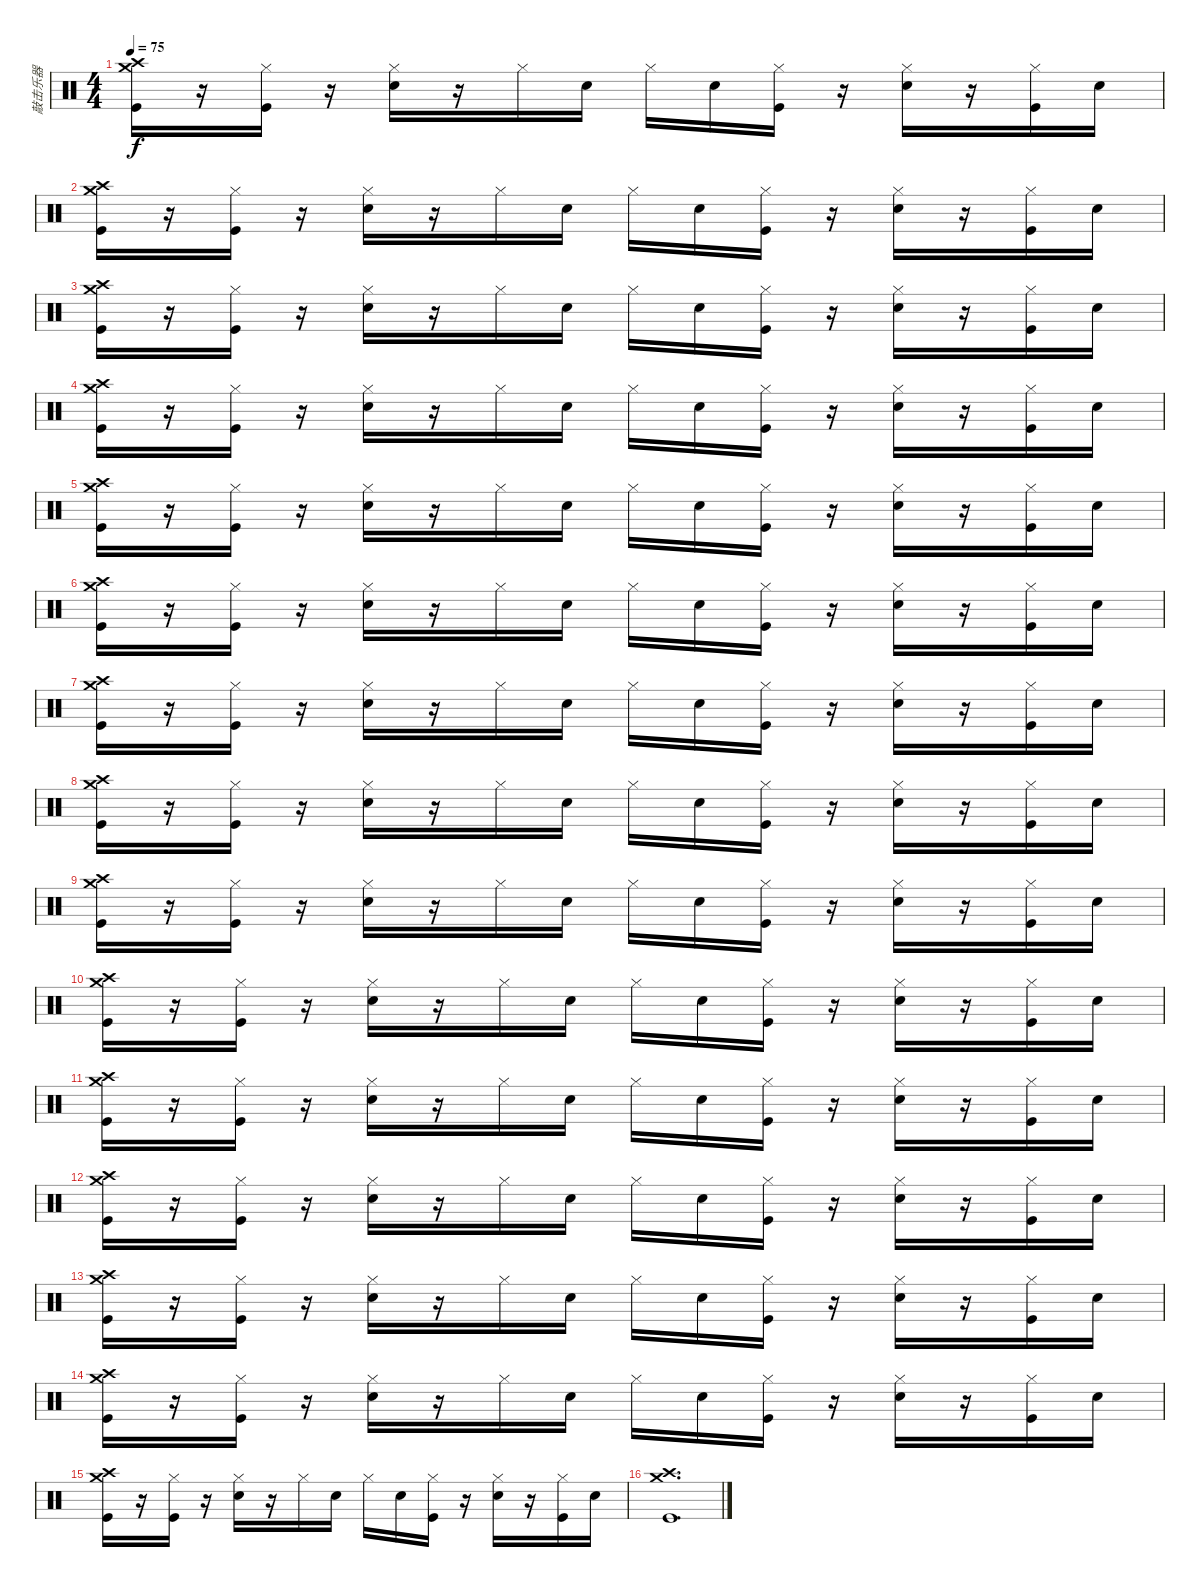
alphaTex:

\track ("敲击乐器" "敲击乐器") {instrument percussion}
\staff {score}
\articulation defaults
\ts (4 4)
\tempo 75
\clef neutral
\ks c
("Crash medium (hit)" "Crash high (hit)" "Kick (hit)").16{dy f} r.16 ("Hi-Hat (closed)" "Kick (hit)").16 r.16 ("Hi-Hat (closed)" "Snare (hit) 2").16 r.16 "Hi-Hat (closed)".16 "Snare (hit) 2".16 "Hi-Hat (closed)".16 "Snare (hit) 2".16 ("Hi-Hat (closed)" "Kick (hit)").16 r.16 ("Hi-Hat (closed)" "Snare (hit) 2").16 r.16 ("Hi-Hat (closed)" "Kick (hit)").16 "Snare (hit) 2".16 |
("Crash medium (hit)" "Crash high (hit)" "Kick (hit)").16 r.16 ("Hi-Hat (closed)" "Kick (hit)").16 r.16 ("Hi-Hat (closed)" "Snare (hit) 2").16 r.16 "Hi-Hat (closed)".16 "Snare (hit) 2".16 "Hi-Hat (closed)".16 "Snare (hit) 2".16 ("Hi-Hat (closed)" "Kick (hit)").16 r.16 ("Hi-Hat (closed)" "Snare (hit) 2").16 r.16 ("Hi-Hat (closed)" "Kick (hit)").16 "Snare (hit) 2".16 |
("Crash medium (hit)" "Crash high (hit)" "Kick (hit)").16 r.16 ("Hi-Hat (closed)" "Kick (hit)").16 r.16 ("Hi-Hat (closed)" "Snare (hit) 2").16 r.16 "Hi-Hat (closed)".16 "Snare (hit) 2".16 "Hi-Hat (closed)".16 "Snare (hit) 2".16 ("Hi-Hat (closed)" "Kick (hit)").16 r.16 ("Hi-Hat (closed)" "Snare (hit) 2").16 r.16 ("Hi-Hat (closed)" "Kick (hit)").16 "Snare (hit) 2".16 |
("Crash medium (hit)" "Crash high (hit)" "Kick (hit)").16 r.16 ("Hi-Hat (closed)" "Kick (hit)").16 r.16 ("Hi-Hat (closed)" "Snare (hit) 2").16 r.16 "Hi-Hat (closed)".16 "Snare (hit) 2".16 "Hi-Hat (closed)".16 "Snare (hit) 2".16 ("Hi-Hat (closed)" "Kick (hit)").16 r.16 ("Hi-Hat (closed)" "Snare (hit) 2").16 r.16 ("Hi-Hat (closed)" "Kick (hit)").16 "Snare (hit) 2".16 |
("Crash medium (hit)" "Crash high (hit)" "Kick (hit)").16 r.16 ("Hi-Hat (closed)" "Kick (hit)").16 r.16 ("Hi-Hat (closed)" "Snare (hit) 2").16 r.16 "Hi-Hat (closed)".16 "Snare (hit) 2".16 "Hi-Hat (closed)".16 "Snare (hit) 2".16 ("Hi-Hat (closed)" "Kick (hit)").16 r.16 ("Hi-Hat (closed)" "Snare (hit) 2").16 r.16 ("Hi-Hat (closed)" "Kick (hit)").16 "Snare (hit) 2".16 |
("Crash medium (hit)" "Crash high (hit)" "Kick (hit)").16 r.16 ("Hi-Hat (closed)" "Kick (hit)").16 r.16 ("Hi-Hat (closed)" "Snare (hit) 2").16 r.16 "Hi-Hat (closed)".16 "Snare (hit) 2".16 "Hi-Hat (closed)".16 "Snare (hit) 2".16 ("Hi-Hat (closed)" "Kick (hit)").16 r.16 ("Hi-Hat (closed)" "Snare (hit) 2").16 r.16 ("Hi-Hat (closed)" "Kick (hit)").16 "Snare (hit) 2".16 |
("Crash medium (hit)" "Crash high (hit)" "Kick (hit)").16 r.16 ("Hi-Hat (closed)" "Kick (hit)").16 r.16 ("Hi-Hat (closed)" "Snare (hit) 2").16 r.16 "Hi-Hat (closed)".16 "Snare (hit) 2".16 "Hi-Hat (closed)".16 "Snare (hit) 2".16 ("Hi-Hat (closed)" "Kick (hit)").16 r.16 ("Hi-Hat (closed)" "Snare (hit) 2").16 r.16 ("Hi-Hat (closed)" "Kick (hit)").16 "Snare (hit) 2".16 |
("Crash medium (hit)" "Crash high (hit)" "Kick (hit)").16 r.16 ("Hi-Hat (closed)" "Kick (hit)").16 r.16 ("Hi-Hat (closed)" "Snare (hit) 2").16 r.16 "Hi-Hat (closed)".16 "Snare (hit) 2".16 "Hi-Hat (closed)".16 "Snare (hit) 2".16 ("Hi-Hat (closed)" "Kick (hit)").16 r.16 ("Hi-Hat (closed)" "Snare (hit) 2").16 r.16 ("Hi-Hat (closed)" "Kick (hit)").16 "Snare (hit) 2".16 |
("Crash medium (hit)" "Crash high (hit)" "Kick (hit)").16 r.16 ("Hi-Hat (closed)" "Kick (hit)").16 r.16 ("Hi-Hat (closed)" "Snare (hit) 2").16 r.16 "Hi-Hat (closed)".16 "Snare (hit) 2".16 "Hi-Hat (closed)".16 "Snare (hit) 2".16 ("Hi-Hat (closed)" "Kick (hit)").16 r.16 ("Hi-Hat (closed)" "Snare (hit) 2").16 r.16 ("Hi-Hat (closed)" "Kick (hit)").16 "Snare (hit) 2".16 |
("Crash medium (hit)" "Crash high (hit)" "Kick (hit)").16 r.16 ("Hi-Hat (closed)" "Kick (hit)").16 r.16 ("Hi-Hat (closed)" "Snare (hit) 2").16 r.16 "Hi-Hat (closed)".16 "Snare (hit) 2".16 "Hi-Hat (closed)".16 "Snare (hit) 2".16 ("Hi-Hat (closed)" "Kick (hit)").16 r.16 ("Hi-Hat (closed)" "Snare (hit) 2").16 r.16 ("Hi-Hat (closed)" "Kick (hit)").16 "Snare (hit) 2".16 |
("Crash medium (hit)" "Crash high (hit)" "Kick (hit)").16 r.16 ("Hi-Hat (closed)" "Kick (hit)").16 r.16 ("Hi-Hat (closed)" "Snare (hit) 2").16 r.16 "Hi-Hat (closed)".16 "Snare (hit) 2".16 "Hi-Hat (closed)".16 "Snare (hit) 2".16 ("Hi-Hat (closed)" "Kick (hit)").16 r.16 ("Hi-Hat (closed)" "Snare (hit) 2").16 r.16 ("Hi-Hat (closed)" "Kick (hit)").16 "Snare (hit) 2".16 |
("Crash medium (hit)" "Crash high (hit)" "Kick (hit)").16 r.16 ("Hi-Hat (closed)" "Kick (hit)").16 r.16 ("Hi-Hat (closed)" "Snare (hit) 2").16 r.16 "Hi-Hat (closed)".16 "Snare (hit) 2".16 "Hi-Hat (closed)".16 "Snare (hit) 2".16 ("Hi-Hat (closed)" "Kick (hit)").16 r.16 ("Hi-Hat (closed)" "Snare (hit) 2").16 r.16 ("Hi-Hat (closed)" "Kick (hit)").16 "Snare (hit) 2".16 |
("Crash medium (hit)" "Crash high (hit)" "Kick (hit)").16 r.16 ("Hi-Hat (closed)" "Kick (hit)").16 r.16 ("Hi-Hat (closed)" "Snare (hit) 2").16 r.16 "Hi-Hat (closed)".16 "Snare (hit) 2".16 "Hi-Hat (closed)".16 "Snare (hit) 2".16 ("Hi-Hat (closed)" "Kick (hit)").16 r.16 ("Hi-Hat (closed)" "Snare (hit) 2").16 r.16 ("Hi-Hat (closed)" "Kick (hit)").16 "Snare (hit) 2".16 |
("Crash medium (hit)" "Crash high (hit)" "Kick (hit)").16 r.16 ("Hi-Hat (closed)" "Kick (hit)").16 r.16 ("Hi-Hat (closed)" "Snare (hit) 2").16 r.16 "Hi-Hat (closed)".16 "Snare (hit) 2".16 "Hi-Hat (closed)".16 "Snare (hit) 2".16 ("Hi-Hat (closed)" "Kick (hit)").16 r.16 ("Hi-Hat (closed)" "Snare (hit) 2").16 r.16 ("Hi-Hat (closed)" "Kick (hit)").16 "Snare (hit) 2".16 |
("Crash medium (hit)" "Crash high (hit)" "Kick (hit)").16 r.16 ("Hi-Hat (closed)" "Kick (hit)").16 r.16 ("Hi-Hat (closed)" "Snare (hit) 2").16 r.16 "Hi-Hat (closed)".16 "Snare (hit) 2".16 "Hi-Hat (closed)".16 "Snare (hit) 2".16 ("Hi-Hat (closed)" "Kick (hit)").16 r.16 ("Hi-Hat (closed)" "Snare (hit) 2").16 r.16 ("Hi-Hat (closed)" "Kick (hit)").16 "Snare (hit) 2".16 |
("Crash medium (hit)" "Crash high (hit)" "Kick (hit)").1{d}
